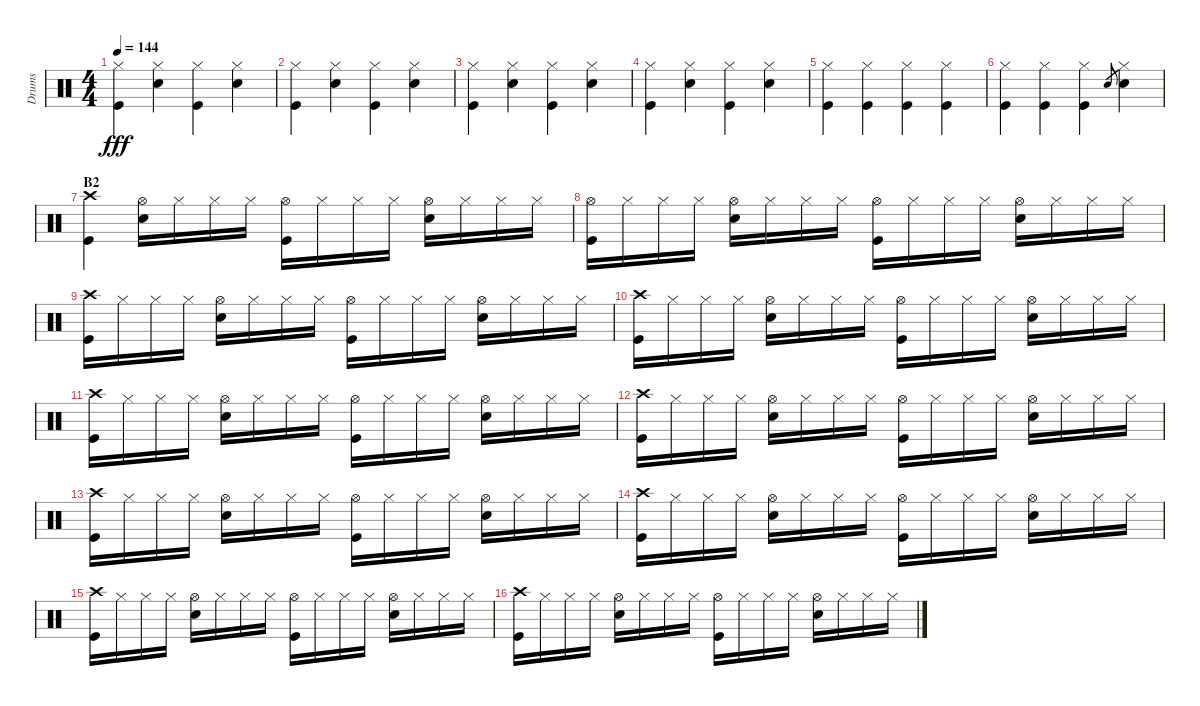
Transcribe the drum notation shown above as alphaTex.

\track ("Drums" "Drums") {instrument percussion}
\staff {score}
\articulation defaults
\ts (4 4)
\tempo 144
\clef neutral
\ks c
("Hi-Hat (closed)" "Kick (hit)").4{dy fff} ("Hi-Hat (closed)" "Snare (hit) 2").4 ("Hi-Hat (closed)" "Kick (hit)").4 ("Hi-Hat (closed)" "Snare (hit) 2").4 |
("Hi-Hat (closed)" "Kick (hit)").4 ("Hi-Hat (closed)" "Snare (hit) 2").4 ("Hi-Hat (closed)" "Kick (hit)").4 ("Hi-Hat (closed)" "Snare (hit) 2").4 |
("Hi-Hat (closed)" "Kick (hit)").4 ("Hi-Hat (closed)" "Snare (hit) 2").4 ("Hi-Hat (closed)" "Kick (hit)").4 ("Hi-Hat (closed)" "Snare (hit) 2").4 |
("Hi-Hat (closed)" "Kick (hit)").4 ("Hi-Hat (closed)" "Snare (hit) 2").4 ("Hi-Hat (closed)" "Kick (hit)").4 ("Hi-Hat (closed)" "Snare (hit) 2").4 |
("Hi-Hat (closed)" "Kick (hit)").4 ("Hi-Hat (closed)" "Kick (hit)").4 ("Hi-Hat (closed)" "Kick (hit)").4 ("Hi-Hat (closed)" "Kick (hit)").4 |
("Hi-Hat (closed)" "Kick (hit)").4 ("Hi-Hat (closed)" "Kick (hit)").4 ("Hi-Hat (closed)" "Kick (hit)").4 "Snare (hit) 2".8{gr} ("Hi-Hat (closed)" "Snare (hit) 2").4 |
\section ("" "B2")
("Crash high (hit)" "Kick (hit)").4 ("Hi-Hat (open)" "Snare (hit) 2").16 "Hi-Hat (closed)".16 "Hi-Hat (closed)".16 "Hi-Hat (closed)".16 ("Hi-Hat (open)" "Kick (hit)").16 "Hi-Hat (closed)".16 "Hi-Hat (closed)".16 "Hi-Hat (closed)".16 ("Hi-Hat (open)" "Snare (hit) 2").16 "Hi-Hat (closed)".16 "Hi-Hat (closed)".16 "Hi-Hat (closed)".16 |
("Hi-Hat (open)" "Kick (hit)").16 "Hi-Hat (closed)".16 "Hi-Hat (closed)".16 "Hi-Hat (closed)".16 ("Hi-Hat (open)" "Snare (hit) 2").16 "Hi-Hat (closed)".16 "Hi-Hat (closed)".16 "Hi-Hat (closed)".16 ("Hi-Hat (open)" "Kick (hit)").16 "Hi-Hat (closed)".16 "Hi-Hat (closed)".16 "Hi-Hat (closed)".16 ("Hi-Hat (open)" "Snare (hit) 2").16 "Hi-Hat (closed)".16 "Hi-Hat (closed)".16 "Hi-Hat (closed)".16 |
("Crash high (hit)" "Kick (hit)").16 "Hi-Hat (closed)".16 "Hi-Hat (closed)".16 "Hi-Hat (closed)".16 ("Hi-Hat (open)" "Snare (hit) 2").16 "Hi-Hat (closed)".16 "Hi-Hat (closed)".16 "Hi-Hat (closed)".16 ("Hi-Hat (open)" "Kick (hit)").16 "Hi-Hat (closed)".16 "Hi-Hat (closed)".16 "Hi-Hat (closed)".16 ("Hi-Hat (open)" "Snare (hit) 2").16 "Hi-Hat (closed)".16 "Hi-Hat (closed)".16 "Hi-Hat (closed)".16 |
("Crash high (hit)" "Kick (hit)").16 "Hi-Hat (closed)".16 "Hi-Hat (closed)".16 "Hi-Hat (closed)".16 ("Hi-Hat (open)" "Snare (hit) 2").16 "Hi-Hat (closed)".16 "Hi-Hat (closed)".16 "Hi-Hat (closed)".16 ("Hi-Hat (open)" "Kick (hit)").16 "Hi-Hat (closed)".16 "Hi-Hat (closed)".16 "Hi-Hat (closed)".16 ("Hi-Hat (open)" "Snare (hit) 2").16 "Hi-Hat (closed)".16 "Hi-Hat (closed)".16 "Hi-Hat (closed)".16 |
("Crash high (hit)" "Kick (hit)").16 "Hi-Hat (closed)".16 "Hi-Hat (closed)".16 "Hi-Hat (closed)".16 ("Hi-Hat (open)" "Snare (hit) 2").16 "Hi-Hat (closed)".16 "Hi-Hat (closed)".16 "Hi-Hat (closed)".16 ("Hi-Hat (open)" "Kick (hit)").16 "Hi-Hat (closed)".16 "Hi-Hat (closed)".16 "Hi-Hat (closed)".16 ("Hi-Hat (open)" "Snare (hit) 2").16 "Hi-Hat (closed)".16 "Hi-Hat (closed)".16 "Hi-Hat (closed)".16 |
("Crash high (hit)" "Kick (hit)").16 "Hi-Hat (closed)".16 "Hi-Hat (closed)".16 "Hi-Hat (closed)".16 ("Hi-Hat (open)" "Snare (hit) 2").16 "Hi-Hat (closed)".16 "Hi-Hat (closed)".16 "Hi-Hat (closed)".16 ("Hi-Hat (open)" "Kick (hit)").16 "Hi-Hat (closed)".16 "Hi-Hat (closed)".16 "Hi-Hat (closed)".16 ("Hi-Hat (open)" "Snare (hit) 2").16 "Hi-Hat (closed)".16 "Hi-Hat (closed)".16 "Hi-Hat (closed)".16 |
("Crash high (hit)" "Kick (hit)").16 "Hi-Hat (closed)".16 "Hi-Hat (closed)".16 "Hi-Hat (closed)".16 ("Hi-Hat (open)" "Snare (hit) 2").16 "Hi-Hat (closed)".16 "Hi-Hat (closed)".16 "Hi-Hat (closed)".16 ("Hi-Hat (open)" "Kick (hit)").16 "Hi-Hat (closed)".16 "Hi-Hat (closed)".16 "Hi-Hat (closed)".16 ("Hi-Hat (open)" "Snare (hit) 2").16 "Hi-Hat (closed)".16 "Hi-Hat (closed)".16 "Hi-Hat (closed)".16 |
("Crash high (hit)" "Kick (hit)").16 "Hi-Hat (closed)".16 "Hi-Hat (closed)".16 "Hi-Hat (closed)".16 ("Hi-Hat (open)" "Snare (hit) 2").16 "Hi-Hat (closed)".16 "Hi-Hat (closed)".16 "Hi-Hat (closed)".16 ("Hi-Hat (open)" "Kick (hit)").16 "Hi-Hat (closed)".16 "Hi-Hat (closed)".16 "Hi-Hat (closed)".16 ("Hi-Hat (open)" "Snare (hit) 2").16 "Hi-Hat (closed)".16 "Hi-Hat (closed)".16 "Hi-Hat (closed)".16 |
("Crash high (hit)" "Kick (hit)").16 "Hi-Hat (closed)".16 "Hi-Hat (closed)".16 "Hi-Hat (closed)".16 ("Hi-Hat (open)" "Snare (hit) 2").16 "Hi-Hat (closed)".16 "Hi-Hat (closed)".16 "Hi-Hat (closed)".16 ("Hi-Hat (open)" "Kick (hit)").16 "Hi-Hat (closed)".16 "Hi-Hat (closed)".16 "Hi-Hat (closed)".16 ("Hi-Hat (open)" "Snare (hit) 2").16 "Hi-Hat (closed)".16 "Hi-Hat (closed)".16 "Hi-Hat (closed)".16 |
("Crash high (hit)" "Kick (hit)").16 "Hi-Hat (closed)".16 "Hi-Hat (closed)".16 "Hi-Hat (closed)".16 ("Hi-Hat (open)" "Snare (hit) 2").16 "Hi-Hat (closed)".16 "Hi-Hat (closed)".16 "Hi-Hat (closed)".16 ("Hi-Hat (open)" "Kick (hit)").16 "Hi-Hat (closed)".16 "Hi-Hat (closed)".16 "Hi-Hat (closed)".16 ("Hi-Hat (open)" "Snare (hit) 2").16 "Hi-Hat (closed)".16 "Hi-Hat (closed)".16 "Hi-Hat (closed)".16
